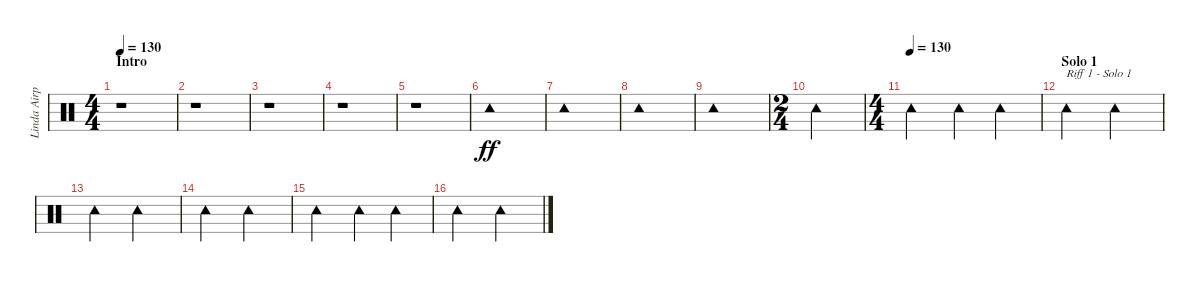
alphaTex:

\track ("Linda Airplane" "Linda Airp") {instrument percussion}
\staff {score}
\articulation defaults
\ts (4 4)
\section ("" "Intro")
\tempo 130
\tempo 100
\tempo 130
\clef neutral
\ks c
r.1{dy ff} |
r.1 |
r.1 |
r.1 |
r.1 |
"Tambourine (hit)".1 |
"Tambourine (hit)".1 |
"Tambourine (hit)".1 |
"Tambourine (hit)".1 |
\ts (2 4)
"Tambourine (hit)".2 |
\ts (4 4)
\tempo (130)
"Tambourine (hit)".2 "Tambourine (hit)".4 "Tambourine (hit)".4 |
\section ("" "Solo 1")
"Tambourine (hit)".2{txt "Riff 1 - Solo 1"} "Tambourine (hit)".2 |
"Tambourine (hit)".2 "Tambourine (hit)".2 |
"Tambourine (hit)".2 "Tambourine (hit)".2 |
"Tambourine (hit)".2 "Tambourine (hit)".4 "Tambourine (hit)".4 |
"Tambourine (hit)".2 "Tambourine (hit)".2
